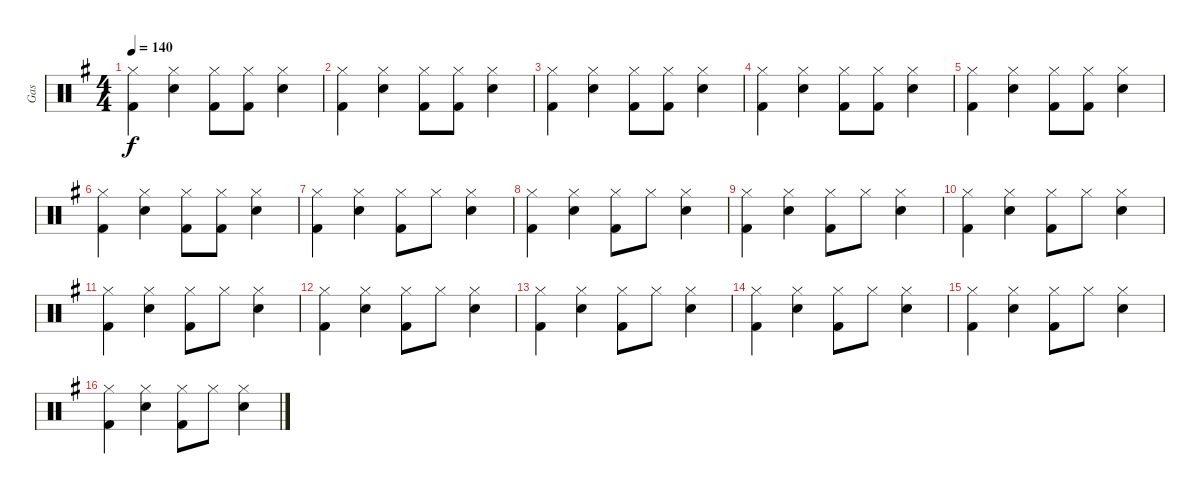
\track ("Gas" "Gas") {instrument percussion}
\staff {score}
\articulation defaults
\ts (4 4)
\tempo 140
\clef neutral
\ks eminor
("Hi-Hat (closed)" "Kick (hit) 2").4{dy f} ("Hi-Hat (closed)" "Electric Snare (hit)").4 ("Hi-Hat (closed)" "Kick (hit) 2").8 ("Hi-Hat (closed)" "Kick (hit) 2").8 ("Hi-Hat (closed)" "Electric Snare (hit)").4 |
("Hi-Hat (closed)" "Kick (hit) 2").4 ("Hi-Hat (closed)" "Electric Snare (hit)").4 ("Hi-Hat (closed)" "Kick (hit) 2").8 ("Hi-Hat (closed)" "Kick (hit) 2").8 ("Hi-Hat (closed)" "Electric Snare (hit)").4 |
("Hi-Hat (closed)" "Kick (hit) 2").4 ("Hi-Hat (closed)" "Electric Snare (hit)").4 ("Hi-Hat (closed)" "Kick (hit) 2").8 ("Hi-Hat (closed)" "Kick (hit) 2").8 ("Hi-Hat (closed)" "Electric Snare (hit)").4 |
("Hi-Hat (closed)" "Kick (hit) 2").4 ("Hi-Hat (closed)" "Electric Snare (hit)").4 ("Hi-Hat (closed)" "Kick (hit) 2").8 ("Hi-Hat (closed)" "Kick (hit) 2").8 ("Hi-Hat (closed)" "Electric Snare (hit)").4 |
("Hi-Hat (closed)" "Kick (hit) 2").4 ("Hi-Hat (closed)" "Electric Snare (hit)").4 ("Hi-Hat (closed)" "Kick (hit) 2").8 ("Hi-Hat (closed)" "Kick (hit) 2").8 ("Hi-Hat (closed)" "Electric Snare (hit)").4 |
("Hi-Hat (closed)" "Kick (hit) 2").4 ("Hi-Hat (closed)" "Electric Snare (hit)").4 ("Hi-Hat (closed)" "Kick (hit) 2").8 ("Hi-Hat (closed)" "Kick (hit) 2").8 ("Hi-Hat (closed)" "Electric Snare (hit)").4 |
("Hi-Hat (closed)" "Kick (hit) 2").4 ("Hi-Hat (closed)" "Electric Snare (hit)").4 ("Hi-Hat (closed)" "Kick (hit) 2").8 "Hi-Hat (closed)".8 ("Hi-Hat (closed)" "Electric Snare (hit)").4 |
("Hi-Hat (closed)" "Kick (hit) 2").4 ("Hi-Hat (closed)" "Electric Snare (hit)").4 ("Hi-Hat (closed)" "Kick (hit) 2").8 "Hi-Hat (closed)".8 ("Hi-Hat (closed)" "Electric Snare (hit)").4 |
("Hi-Hat (closed)" "Kick (hit) 2").4 ("Hi-Hat (closed)" "Electric Snare (hit)").4 ("Hi-Hat (closed)" "Kick (hit) 2").8 "Hi-Hat (closed)".8 ("Hi-Hat (closed)" "Electric Snare (hit)").4 |
("Hi-Hat (closed)" "Kick (hit) 2").4 ("Hi-Hat (closed)" "Electric Snare (hit)").4 ("Hi-Hat (closed)" "Kick (hit) 2").8 "Hi-Hat (closed)".8 ("Hi-Hat (closed)" "Electric Snare (hit)").4 |
("Hi-Hat (closed)" "Kick (hit) 2").4 ("Hi-Hat (closed)" "Electric Snare (hit)").4 ("Hi-Hat (closed)" "Kick (hit) 2").8 "Hi-Hat (closed)".8 ("Hi-Hat (closed)" "Electric Snare (hit)").4 |
("Hi-Hat (closed)" "Kick (hit) 2").4 ("Hi-Hat (closed)" "Electric Snare (hit)").4 ("Hi-Hat (closed)" "Kick (hit) 2").8 "Hi-Hat (closed)".8 ("Hi-Hat (closed)" "Electric Snare (hit)").4 |
("Hi-Hat (closed)" "Kick (hit) 2").4 ("Hi-Hat (closed)" "Electric Snare (hit)").4 ("Hi-Hat (closed)" "Kick (hit) 2").8 "Hi-Hat (closed)".8 ("Hi-Hat (closed)" "Electric Snare (hit)").4 |
("Hi-Hat (closed)" "Kick (hit) 2").4 ("Hi-Hat (closed)" "Electric Snare (hit)").4 ("Hi-Hat (closed)" "Kick (hit) 2").8 "Hi-Hat (closed)".8 ("Hi-Hat (closed)" "Electric Snare (hit)").4 |
("Hi-Hat (closed)" "Kick (hit) 2").4 ("Hi-Hat (closed)" "Electric Snare (hit)").4 ("Hi-Hat (closed)" "Kick (hit) 2").8 "Hi-Hat (closed)".8 ("Hi-Hat (closed)" "Electric Snare (hit)").4 |
("Hi-Hat (closed)" "Kick (hit) 2").4 ("Hi-Hat (closed)" "Electric Snare (hit)").4 ("Hi-Hat (closed)" "Kick (hit) 2").8 "Hi-Hat (closed)".8 ("Hi-Hat (closed)" "Electric Snare (hit)").4
